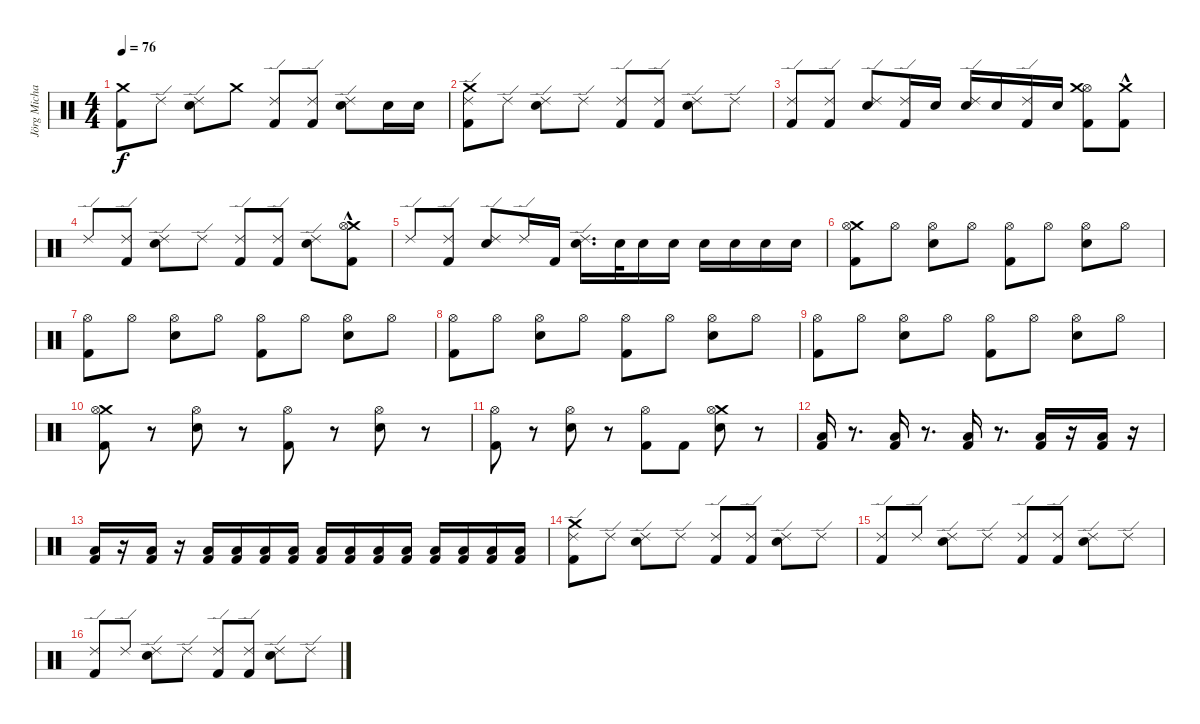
\track ("Jörg Michael" "Jörg Micha") {instrument percussion}
\staff {score}
\articulation defaults
\ts (4 4)
\tempo 76
\clef neutral
\ks c
("Crash medium (hit)" "Kick (hit) 2").8{dy f} "Ride (edge) 2".8 ("Ride (edge) 2" "Electric Snare (hit)").8 "Crash medium (hit)".8 ("Ride (edge) 2" "Kick (hit) 2").8 ("Ride (edge) 2" "Kick (hit) 2").8 ("Ride (edge) 2" "Electric Snare (hit)").8 "Electric Snare (hit)".16 "Electric Snare (hit)".16 |
("Ride (edge) 2" "Crash medium (hit)" "Kick (hit) 2").8 "Ride (edge) 2".8 ("Ride (edge) 2" "Electric Snare (hit)").8 "Ride (edge) 2".8 ("Ride (edge) 2" "Kick (hit) 2").8 ("Ride (edge) 2" "Kick (hit) 2").8 ("Ride (edge) 2" "Electric Snare (hit)").8 "Ride (edge) 2".8 |
("Kick (hit) 2" "Ride (edge) 2").8 ("Kick (hit) 2" "Ride (edge) 2").8 ("Electric Snare (hit)" "Ride (edge) 2").8 ("Kick (hit) 2" "Ride (edge) 2").16 "Electric Snare (hit)".16 ("Electric Snare (hit)" "Ride (edge) 2").16 "Electric Snare (hit)".16 ("Kick (hit) 2" "Ride (edge) 2").16 "Electric Snare (hit)".16 ("Hi-Hat (open)" "Crash medium (hit)" "Kick (hit) 2").8 ("Crash medium (hit)"{hac} "Kick (hit) 2").8 |
"Ride (edge) 2".8 ("Ride (edge) 2" "Kick (hit) 2").8 ("Ride (edge) 2" "Electric Snare (hit)").8 "Ride (edge) 2".8 ("Ride (edge) 2" "Kick (hit) 2").8 ("Ride (edge) 2" "Kick (hit) 2").8 ("Ride (edge) 2" "Electric Snare (hit)").8 ("Crash medium (hit)"{hac} "Hi-Hat (open)"{hac} "Kick (hit) 2").8 |
"Ride (edge) 2".8 ("Kick (hit) 2" "Ride (edge) 2").8 ("Electric Snare (hit)" "Ride (edge) 2").8 "Ride (edge) 2".16 "Kick (hit) 2".16 ("Electric Snare (hit)" "Ride (edge) 2").16{d} "Electric Snare (hit)".32 "Electric Snare (hit)".16 "Electric Snare (hit)".16 "Electric Snare (hit)".16 "Electric Snare (hit)".16 "Electric Snare (hit)".16 "Electric Snare (hit)".16 |
("Crash medium (hit)" "Kick (hit) 2" "Hi-Hat (open)").8 "Hi-Hat (open)".8 ("Electric Snare (hit)" "Hi-Hat (open)").8 "Hi-Hat (open)".8 ("Kick (hit) 2" "Hi-Hat (open)").8 "Hi-Hat (open)".8 ("Electric Snare (hit)" "Hi-Hat (open)").8 "Hi-Hat (open)".8 |
("Kick (hit) 2" "Hi-Hat (open)").8 "Hi-Hat (open)".8 ("Electric Snare (hit)" "Hi-Hat (open)").8 "Hi-Hat (open)".8 ("Kick (hit) 2" "Hi-Hat (open)").8 "Hi-Hat (open)".8 ("Electric Snare (hit)" "Hi-Hat (open)").8 "Hi-Hat (open)".8 |
("Kick (hit) 2" "Hi-Hat (open)").8 "Hi-Hat (open)".8 ("Electric Snare (hit)" "Hi-Hat (open)").8 "Hi-Hat (open)".8 ("Kick (hit) 2" "Hi-Hat (open)").8 "Hi-Hat (open)".8 ("Electric Snare (hit)" "Hi-Hat (open)").8 "Hi-Hat (open)".8 |
("Kick (hit) 2" "Hi-Hat (open)").8 "Hi-Hat (open)".8 ("Electric Snare (hit)" "Hi-Hat (open)").8 "Hi-Hat (open)".8 ("Kick (hit) 2" "Hi-Hat (open)").8 "Hi-Hat (open)".8 ("Electric Snare (hit)" "Hi-Hat (open)").8 "Hi-Hat (open)".8 |
("Crash medium (hit)" "Hi-Hat (open)" "Kick (hit) 2").8 r.8 ("Hi-Hat (open)" "Electric Snare (hit)").8 r.8 ("Hi-Hat (open)" "Kick (hit) 2").8 r.8 ("Hi-Hat (open)" "Electric Snare (hit)").8 r.8 |
("Kick (hit) 2" "Hi-Hat (open)").8 r.8 ("Electric Snare (hit)" "Hi-Hat (open)").8 r.8 ("Kick (hit) 2" "Hi-Hat (open)").8 "Kick (hit) 2".8 ("Electric Snare (hit)" "Crash medium (hit)" "Hi-Hat (open)").8 r.8 |
("Low Floor Tom (hit)" "Kick (hit) 2").16 r.8{d} ("Low Floor Tom (hit)" "Kick (hit) 2").16 r.8{d} ("Low Floor Tom (hit)" "Kick (hit) 2").16 r.8{d} ("Low Floor Tom (hit)" "Kick (hit) 2").16 r.16 ("Low Floor Tom (hit)" "Kick (hit) 2").16 r.16 |
("Low Floor Tom (hit)" "Kick (hit) 2").16 r.16 ("Low Floor Tom (hit)" "Kick (hit) 2").16 r.16 ("Low Floor Tom (hit)" "Kick (hit) 2").16 ("Low Floor Tom (hit)" "Kick (hit) 2").16 ("Low Floor Tom (hit)" "Kick (hit) 2").16 ("Low Floor Tom (hit)" "Kick (hit) 2").16 ("Low Floor Tom (hit)" "Kick (hit) 2").16 ("Low Floor Tom (hit)" "Kick (hit) 2").16 ("Low Floor Tom (hit)" "Kick (hit) 2").16 ("Low Floor Tom (hit)" "Kick (hit) 2").16 ("Low Floor Tom (hit)" "Kick (hit) 2").16 ("Low Floor Tom (hit)" "Kick (hit) 2").16 ("Low Floor Tom (hit)" "Kick (hit) 2").16 ("Low Floor Tom (hit)" "Kick (hit) 2").16 |
("Ride (edge) 2" "Crash medium (hit)" "Kick (hit) 2").8 "Ride (edge) 2".8 ("Ride (edge) 2" "Electric Snare (hit)").8 "Ride (edge) 2".8 ("Ride (edge) 2" "Kick (hit) 2").8 ("Ride (edge) 2" "Kick (hit) 2").8 ("Ride (edge) 2" "Electric Snare (hit)").8 "Ride (edge) 2".8 |
("Ride (edge) 2" "Kick (hit) 2").8 "Ride (edge) 2".8 ("Ride (edge) 2" "Electric Snare (hit)").8 "Ride (edge) 2".8 ("Ride (edge) 2" "Kick (hit) 2").8 ("Ride (edge) 2" "Kick (hit) 2").8 ("Ride (edge) 2" "Electric Snare (hit)").8 "Ride (edge) 2".8 |
("Ride (edge) 2" "Kick (hit) 2").8 "Ride (edge) 2".8 ("Ride (edge) 2" "Electric Snare (hit)").8 "Ride (edge) 2".8 ("Ride (edge) 2" "Kick (hit) 2").8 ("Ride (edge) 2" "Kick (hit) 2").8 ("Ride (edge) 2" "Electric Snare (hit)").8 "Ride (edge) 2".8
